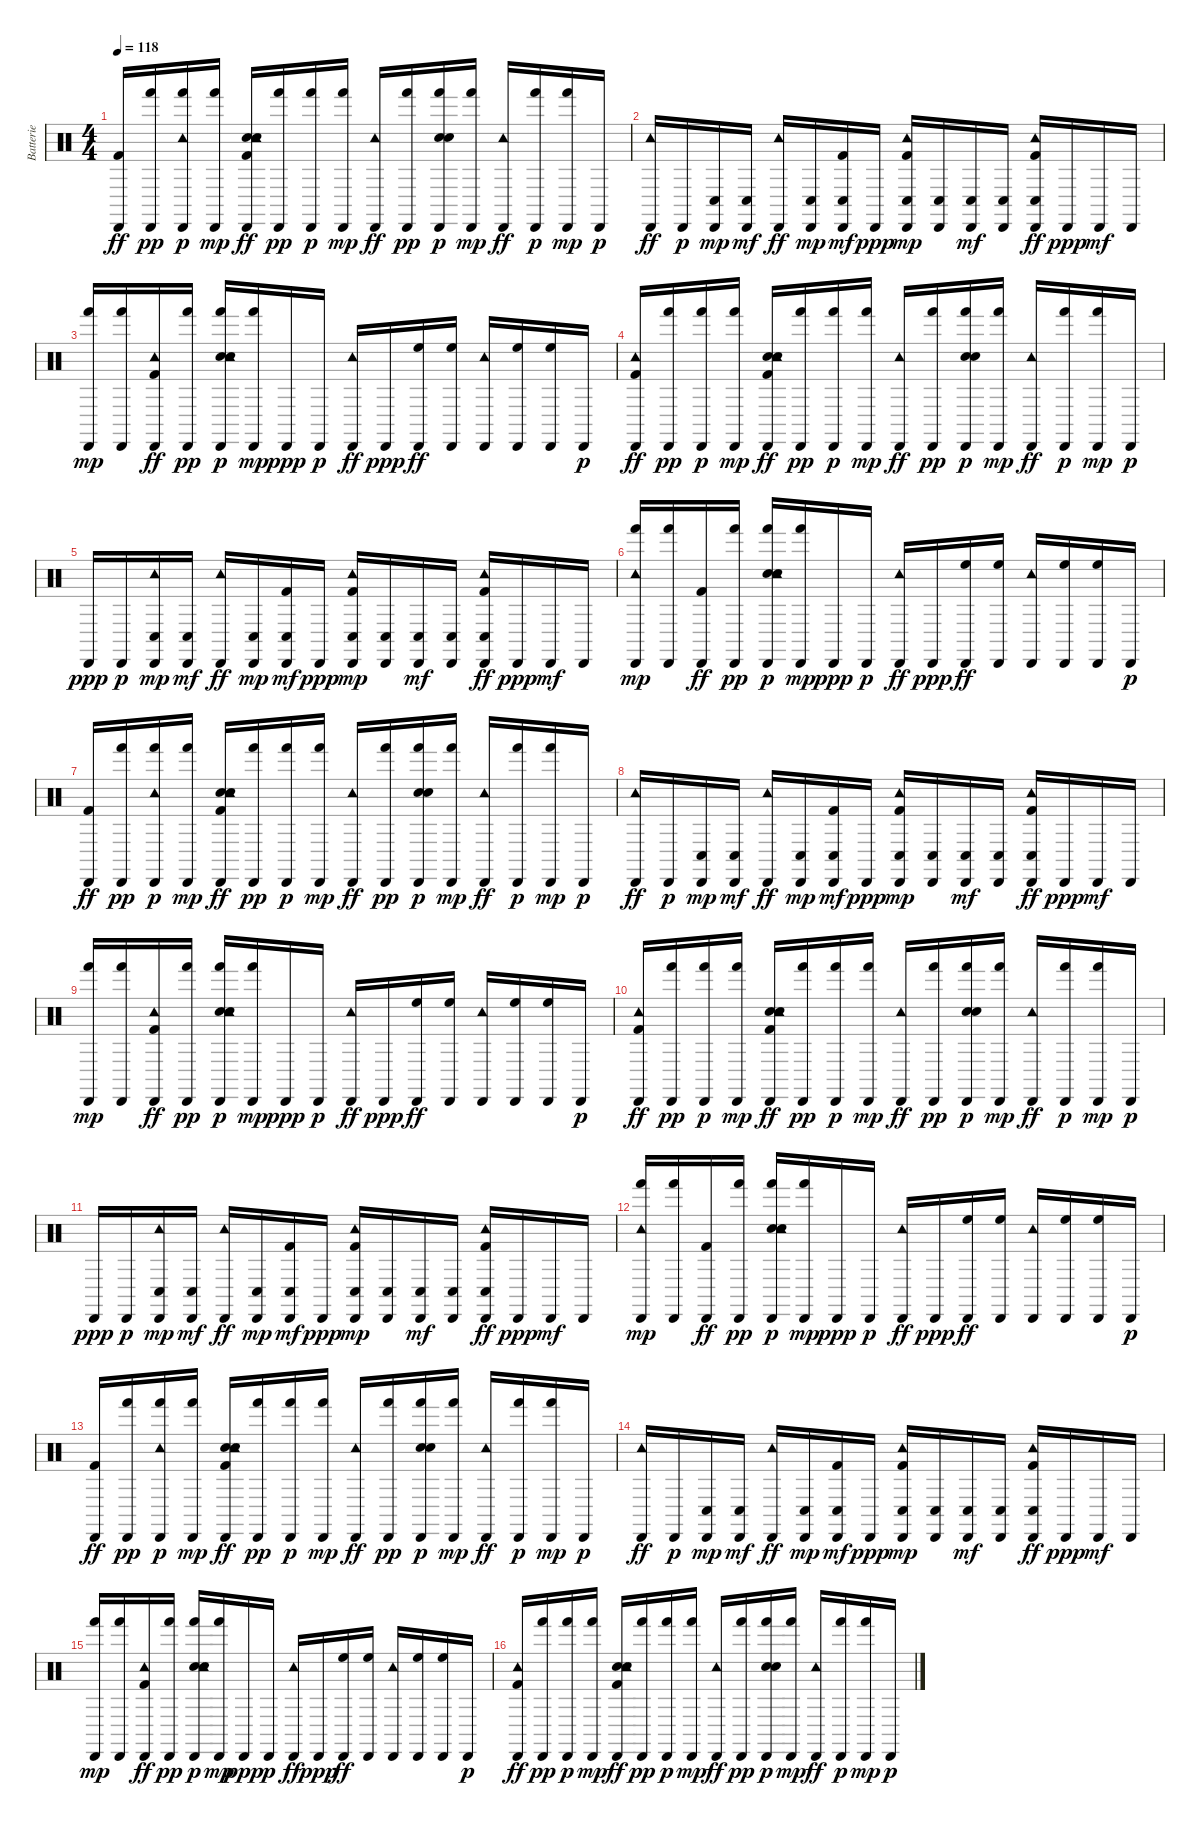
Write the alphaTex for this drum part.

\track ("Batterie" "Batterie") {instrument percussion}
\staff {score}
\articulation defaults
\ts (4 4)
\tempo 118
\clef neutral
\ks c
("Cabasa (hit)" "Kick (hit) 2").16{dy ff} ("Cabasa (hit)" "Hand (hit)").16{dy pp} ("Cabasa (hit)" "Tambourine (hit)" "Hand (hit)").16{dy p} ("Cabasa (hit)" "Hand (hit)").16{dy mp} ("Hand Clap (hit)" "Cabasa (hit)" "Tambourine (hit)" "Kick (hit) 2" "Snare (hit) 2").16{dy ff} ("Cabasa (hit)" "Hand (hit)").16{dy pp} ("Cabasa (hit)" "Hand (hit)").16{dy p} ("Cabasa (hit)" "Hand (hit)").16{dy mp} ("Cabasa (hit)" "Tambourine (hit)").16{dy ff} ("Cabasa (hit)" "Hand (hit)").16{dy pp} ("Hand Clap (hit)" "Cabasa (hit)" "Snare (hit) 2" "Hand (hit)").16{dy p} ("Cabasa (hit)" "Hand (hit)").16{dy mp} ("Cabasa (hit)" "Tambourine (hit)").16{dy ff} ("Cabasa (hit)" "Hand (hit)").16{dy p} ("Cabasa (hit)" "Hand (hit)").16{dy mp} "Cabasa (hit)".16{dy p} |
("Cabasa (hit)" "Tambourine (hit)").16{dy ff} "Cabasa (hit)".16{dy p} ("Cabasa (hit)" "Conga low (hit)").16{dy mp} ("Cabasa (hit)" "Conga low (hit)").16{dy mf} ("Cabasa (hit)" "Tambourine (hit)").16{dy ff} ("Cabasa (hit)" "Conga low (hit)").16{dy mp} ("Cabasa (hit)" "Kick (hit) 2" "Conga low (hit)").16{dy mf} "Cabasa (hit)".16{dy ppp} ("Cabasa (hit)" "Tambourine (hit)" "Kick (hit) 2" "Conga low (hit)").16{dy mp} ("Cabasa (hit)" "Conga low (hit)").16 ("Cabasa (hit)" "Conga low (hit)").16{dy mf} ("Cabasa (hit)" "Conga low (hit)").16 ("Cabasa (hit)" "Tambourine (hit)" "Kick (hit) 2" "Conga low (hit)").16{dy ff} "Cabasa (hit)".16{dy ppp} "Cabasa (hit)".16{dy mf} "Cabasa (hit)".16 |
("Cabasa (hit)" "Hand (hit)").16{dy mp} ("Cabasa (hit)" "Hand (hit)").16 ("Cabasa (hit)" "Tambourine (hit)" "Kick (hit) 2").16{dy ff} ("Cabasa (hit)" "Hand (hit)").16{dy pp} ("Hand Clap (hit)" "Cabasa (hit)" "Tambourine (hit)" "Snare (hit) 2" "Hand (hit)").16{dy p} ("Cabasa (hit)" "Hand (hit)").16{dy mp} "Cabasa (hit)".16{dy ppp} "Cabasa (hit)".16{dy p} ("Cabasa (hit)" "Tambourine (hit)").16{dy ff} "Cabasa (hit)".16{dy ppp} ("Cabasa (hit)" "High Floor Tom (hit)").16{dy ff} ("Cabasa (hit)" "High Floor Tom (hit)").16 ("Cabasa (hit)" "Tambourine (hit)").16 ("Cabasa (hit)" "High Floor Tom (hit)").16 ("Cabasa (hit)" "High Floor Tom (hit)").16 "Cabasa (hit)".16{dy p} |
("Cabasa (hit)" "Tambourine (hit)" "Kick (hit) 2").16{dy ff} ("Cabasa (hit)" "Hand (hit)").16{dy pp} ("Cabasa (hit)" "Hand (hit)").16{dy p} ("Cabasa (hit)" "Hand (hit)").16{dy mp} ("Hand Clap (hit)" "Cabasa (hit)" "Tambourine (hit)" "Kick (hit) 2" "Snare (hit) 2").16{dy ff} ("Cabasa (hit)" "Hand (hit)").16{dy pp} ("Cabasa (hit)" "Hand (hit)").16{dy p} ("Cabasa (hit)" "Hand (hit)").16{dy mp} ("Cabasa (hit)" "Tambourine (hit)").16{dy ff} ("Cabasa (hit)" "Hand (hit)").16{dy pp} ("Hand Clap (hit)" "Cabasa (hit)" "Snare (hit) 2" "Hand (hit)").16{dy p} ("Cabasa (hit)" "Hand (hit)").16{dy mp} ("Cabasa (hit)" "Tambourine (hit)").16{dy ff} ("Cabasa (hit)" "Hand (hit)").16{dy p} ("Cabasa (hit)" "Hand (hit)").16{dy mp} "Cabasa (hit)".16{dy p} |
"Cabasa (hit)".16{dy ppp} "Cabasa (hit)".16{dy p} ("Cabasa (hit)" "Tambourine (hit)" "Conga low (hit)").16{dy mp} ("Cabasa (hit)" "Conga low (hit)").16{dy mf} ("Cabasa (hit)" "Tambourine (hit)").16{dy ff} ("Cabasa (hit)" "Conga low (hit)").16{dy mp} ("Cabasa (hit)" "Kick (hit) 2" "Conga low (hit)").16{dy mf} "Cabasa (hit)".16{dy ppp} ("Cabasa (hit)" "Tambourine (hit)" "Kick (hit) 2" "Conga low (hit)").16{dy mp} ("Cabasa (hit)" "Conga low (hit)").16 ("Cabasa (hit)" "Conga low (hit)").16{dy mf} ("Cabasa (hit)" "Conga low (hit)").16 ("Cabasa (hit)" "Tambourine (hit)" "Kick (hit) 2" "Conga low (hit)").16{dy ff} "Cabasa (hit)".16{dy ppp} "Cabasa (hit)".16{dy mf} "Cabasa (hit)".16 |
("Cabasa (hit)" "Tambourine (hit)" "Hand (hit)").16{dy mp} ("Cabasa (hit)" "Hand (hit)").16 ("Cabasa (hit)" "Kick (hit) 2").16{dy ff} ("Cabasa (hit)" "Hand (hit)").16{dy pp} ("Hand Clap (hit)" "Cabasa (hit)" "Tambourine (hit)" "Snare (hit) 2" "Hand (hit)").16{dy p} ("Cabasa (hit)" "Hand (hit)").16{dy mp} "Cabasa (hit)".16{dy ppp} "Cabasa (hit)".16{dy p} ("Cabasa (hit)" "Tambourine (hit)").16{dy ff} "Cabasa (hit)".16{dy ppp} ("Cabasa (hit)" "High Floor Tom (hit)").16{dy ff} ("Cabasa (hit)" "High Floor Tom (hit)").16 ("Cabasa (hit)" "Tambourine (hit)").16 ("Cabasa (hit)" "High Floor Tom (hit)").16 ("Cabasa (hit)" "High Floor Tom (hit)").16 "Cabasa (hit)".16{dy p} |
("Cabasa (hit)" "Kick (hit) 2").16{dy ff} ("Cabasa (hit)" "Hand (hit)").16{dy pp} ("Cabasa (hit)" "Tambourine (hit)" "Hand (hit)").16{dy p} ("Cabasa (hit)" "Hand (hit)").16{dy mp} ("Hand Clap (hit)" "Cabasa (hit)" "Tambourine (hit)" "Kick (hit) 2" "Snare (hit) 2").16{dy ff} ("Cabasa (hit)" "Hand (hit)").16{dy pp} ("Cabasa (hit)" "Hand (hit)").16{dy p} ("Cabasa (hit)" "Hand (hit)").16{dy mp} ("Cabasa (hit)" "Tambourine (hit)").16{dy ff} ("Cabasa (hit)" "Hand (hit)").16{dy pp} ("Hand Clap (hit)" "Cabasa (hit)" "Snare (hit) 2" "Hand (hit)").16{dy p} ("Cabasa (hit)" "Hand (hit)").16{dy mp} ("Cabasa (hit)" "Tambourine (hit)").16{dy ff} ("Cabasa (hit)" "Hand (hit)").16{dy p} ("Cabasa (hit)" "Hand (hit)").16{dy mp} "Cabasa (hit)".16{dy p} |
("Cabasa (hit)" "Tambourine (hit)").16{dy ff} "Cabasa (hit)".16{dy p} ("Cabasa (hit)" "Conga low (hit)").16{dy mp} ("Cabasa (hit)" "Conga low (hit)").16{dy mf} ("Cabasa (hit)" "Tambourine (hit)").16{dy ff} ("Cabasa (hit)" "Conga low (hit)").16{dy mp} ("Cabasa (hit)" "Kick (hit) 2" "Conga low (hit)").16{dy mf} "Cabasa (hit)".16{dy ppp} ("Cabasa (hit)" "Tambourine (hit)" "Kick (hit) 2" "Conga low (hit)").16{dy mp} ("Cabasa (hit)" "Conga low (hit)").16 ("Cabasa (hit)" "Conga low (hit)").16{dy mf} ("Cabasa (hit)" "Conga low (hit)").16 ("Cabasa (hit)" "Tambourine (hit)" "Kick (hit) 2" "Conga low (hit)").16{dy ff} "Cabasa (hit)".16{dy ppp} "Cabasa (hit)".16{dy mf} "Cabasa (hit)".16 |
("Cabasa (hit)" "Hand (hit)").16{dy mp} ("Cabasa (hit)" "Hand (hit)").16 ("Cabasa (hit)" "Tambourine (hit)" "Kick (hit) 2").16{dy ff} ("Cabasa (hit)" "Hand (hit)").16{dy pp} ("Hand Clap (hit)" "Cabasa (hit)" "Tambourine (hit)" "Snare (hit) 2" "Hand (hit)").16{dy p} ("Cabasa (hit)" "Hand (hit)").16{dy mp} "Cabasa (hit)".16{dy ppp} "Cabasa (hit)".16{dy p} ("Cabasa (hit)" "Tambourine (hit)").16{dy ff} "Cabasa (hit)".16{dy ppp} ("Cabasa (hit)" "High Floor Tom (hit)").16{dy ff} ("Cabasa (hit)" "High Floor Tom (hit)").16 ("Cabasa (hit)" "Tambourine (hit)").16 ("Cabasa (hit)" "High Floor Tom (hit)").16 ("Cabasa (hit)" "High Floor Tom (hit)").16 "Cabasa (hit)".16{dy p} |
("Cabasa (hit)" "Tambourine (hit)" "Kick (hit) 2").16{dy ff} ("Cabasa (hit)" "Hand (hit)").16{dy pp} ("Cabasa (hit)" "Hand (hit)").16{dy p} ("Cabasa (hit)" "Hand (hit)").16{dy mp} ("Hand Clap (hit)" "Cabasa (hit)" "Tambourine (hit)" "Kick (hit) 2" "Snare (hit) 2").16{dy ff} ("Cabasa (hit)" "Hand (hit)").16{dy pp} ("Cabasa (hit)" "Hand (hit)").16{dy p} ("Cabasa (hit)" "Hand (hit)").16{dy mp} ("Cabasa (hit)" "Tambourine (hit)").16{dy ff} ("Cabasa (hit)" "Hand (hit)").16{dy pp} ("Hand Clap (hit)" "Cabasa (hit)" "Snare (hit) 2" "Hand (hit)").16{dy p} ("Cabasa (hit)" "Hand (hit)").16{dy mp} ("Cabasa (hit)" "Tambourine (hit)").16{dy ff} ("Cabasa (hit)" "Hand (hit)").16{dy p} ("Cabasa (hit)" "Hand (hit)").16{dy mp} "Cabasa (hit)".16{dy p} |
"Cabasa (hit)".16{dy ppp} "Cabasa (hit)".16{dy p} ("Cabasa (hit)" "Tambourine (hit)" "Conga low (hit)").16{dy mp} ("Cabasa (hit)" "Conga low (hit)").16{dy mf} ("Cabasa (hit)" "Tambourine (hit)").16{dy ff} ("Cabasa (hit)" "Conga low (hit)").16{dy mp} ("Cabasa (hit)" "Kick (hit) 2" "Conga low (hit)").16{dy mf} "Cabasa (hit)".16{dy ppp} ("Cabasa (hit)" "Tambourine (hit)" "Kick (hit) 2" "Conga low (hit)").16{dy mp} ("Cabasa (hit)" "Conga low (hit)").16 ("Cabasa (hit)" "Conga low (hit)").16{dy mf} ("Cabasa (hit)" "Conga low (hit)").16 ("Cabasa (hit)" "Tambourine (hit)" "Kick (hit) 2" "Conga low (hit)").16{dy ff} "Cabasa (hit)".16{dy ppp} "Cabasa (hit)".16{dy mf} "Cabasa (hit)".16 |
("Cabasa (hit)" "Tambourine (hit)" "Hand (hit)").16{dy mp} ("Cabasa (hit)" "Hand (hit)").16 ("Cabasa (hit)" "Kick (hit) 2").16{dy ff} ("Cabasa (hit)" "Hand (hit)").16{dy pp} ("Hand Clap (hit)" "Cabasa (hit)" "Tambourine (hit)" "Snare (hit) 2" "Hand (hit)").16{dy p} ("Cabasa (hit)" "Hand (hit)").16{dy mp} "Cabasa (hit)".16{dy ppp} "Cabasa (hit)".16{dy p} ("Cabasa (hit)" "Tambourine (hit)").16{dy ff} "Cabasa (hit)".16{dy ppp} ("Cabasa (hit)" "High Floor Tom (hit)").16{dy ff} ("Cabasa (hit)" "High Floor Tom (hit)").16 ("Cabasa (hit)" "Tambourine (hit)").16 ("Cabasa (hit)" "High Floor Tom (hit)").16 ("Cabasa (hit)" "High Floor Tom (hit)").16 "Cabasa (hit)".16{dy p} |
("Cabasa (hit)" "Kick (hit) 2").16{dy ff} ("Cabasa (hit)" "Hand (hit)").16{dy pp} ("Cabasa (hit)" "Tambourine (hit)" "Hand (hit)").16{dy p} ("Cabasa (hit)" "Hand (hit)").16{dy mp} ("Hand Clap (hit)" "Cabasa (hit)" "Tambourine (hit)" "Kick (hit) 2" "Snare (hit) 2").16{dy ff} ("Cabasa (hit)" "Hand (hit)").16{dy pp} ("Cabasa (hit)" "Hand (hit)").16{dy p} ("Cabasa (hit)" "Hand (hit)").16{dy mp} ("Cabasa (hit)" "Tambourine (hit)").16{dy ff} ("Cabasa (hit)" "Hand (hit)").16{dy pp} ("Hand Clap (hit)" "Cabasa (hit)" "Snare (hit) 2" "Hand (hit)").16{dy p} ("Cabasa (hit)" "Hand (hit)").16{dy mp} ("Cabasa (hit)" "Tambourine (hit)").16{dy ff} ("Cabasa (hit)" "Hand (hit)").16{dy p} ("Cabasa (hit)" "Hand (hit)").16{dy mp} "Cabasa (hit)".16{dy p} |
("Cabasa (hit)" "Tambourine (hit)").16{dy ff} "Cabasa (hit)".16{dy p} ("Cabasa (hit)" "Conga low (hit)").16{dy mp} ("Cabasa (hit)" "Conga low (hit)").16{dy mf} ("Cabasa (hit)" "Tambourine (hit)").16{dy ff} ("Cabasa (hit)" "Conga low (hit)").16{dy mp} ("Cabasa (hit)" "Kick (hit) 2" "Conga low (hit)").16{dy mf} "Cabasa (hit)".16{dy ppp} ("Cabasa (hit)" "Tambourine (hit)" "Kick (hit) 2" "Conga low (hit)").16{dy mp} ("Cabasa (hit)" "Conga low (hit)").16 ("Cabasa (hit)" "Conga low (hit)").16{dy mf} ("Cabasa (hit)" "Conga low (hit)").16 ("Cabasa (hit)" "Tambourine (hit)" "Kick (hit) 2" "Conga low (hit)").16{dy ff} "Cabasa (hit)".16{dy ppp} "Cabasa (hit)".16{dy mf} "Cabasa (hit)".16 |
("Cabasa (hit)" "Hand (hit)").16{dy mp} ("Cabasa (hit)" "Hand (hit)").16 ("Cabasa (hit)" "Tambourine (hit)" "Kick (hit) 2").16{dy ff} ("Cabasa (hit)" "Hand (hit)").16{dy pp} ("Hand Clap (hit)" "Cabasa (hit)" "Tambourine (hit)" "Snare (hit) 2" "Hand (hit)").16{dy p} ("Cabasa (hit)" "Hand (hit)").16{dy mp} "Cabasa (hit)".16{dy ppp} "Cabasa (hit)".16{dy p} ("Cabasa (hit)" "Tambourine (hit)").16{dy ff} "Cabasa (hit)".16{dy ppp} ("Cabasa (hit)" "High Floor Tom (hit)").16{dy ff} ("Cabasa (hit)" "High Floor Tom (hit)").16 ("Cabasa (hit)" "Tambourine (hit)").16 ("Cabasa (hit)" "High Floor Tom (hit)").16 ("Cabasa (hit)" "High Floor Tom (hit)").16 "Cabasa (hit)".16{dy p} |
("Cabasa (hit)" "Tambourine (hit)" "Kick (hit) 2").16{dy ff} ("Cabasa (hit)" "Hand (hit)").16{dy pp} ("Cabasa (hit)" "Hand (hit)").16{dy p} ("Cabasa (hit)" "Hand (hit)").16{dy mp} ("Hand Clap (hit)" "Cabasa (hit)" "Tambourine (hit)" "Kick (hit) 2" "Snare (hit) 2").16{dy ff} ("Cabasa (hit)" "Hand (hit)").16{dy pp} ("Cabasa (hit)" "Hand (hit)").16{dy p} ("Cabasa (hit)" "Hand (hit)").16{dy mp} ("Cabasa (hit)" "Tambourine (hit)").16{dy ff} ("Cabasa (hit)" "Hand (hit)").16{dy pp} ("Hand Clap (hit)" "Cabasa (hit)" "Snare (hit) 2" "Hand (hit)").16{dy p} ("Cabasa (hit)" "Hand (hit)").16{dy mp} ("Cabasa (hit)" "Tambourine (hit)").16{dy ff} ("Cabasa (hit)" "Hand (hit)").16{dy p} ("Cabasa (hit)" "Hand (hit)").16{dy mp} "Cabasa (hit)".16{dy p}
